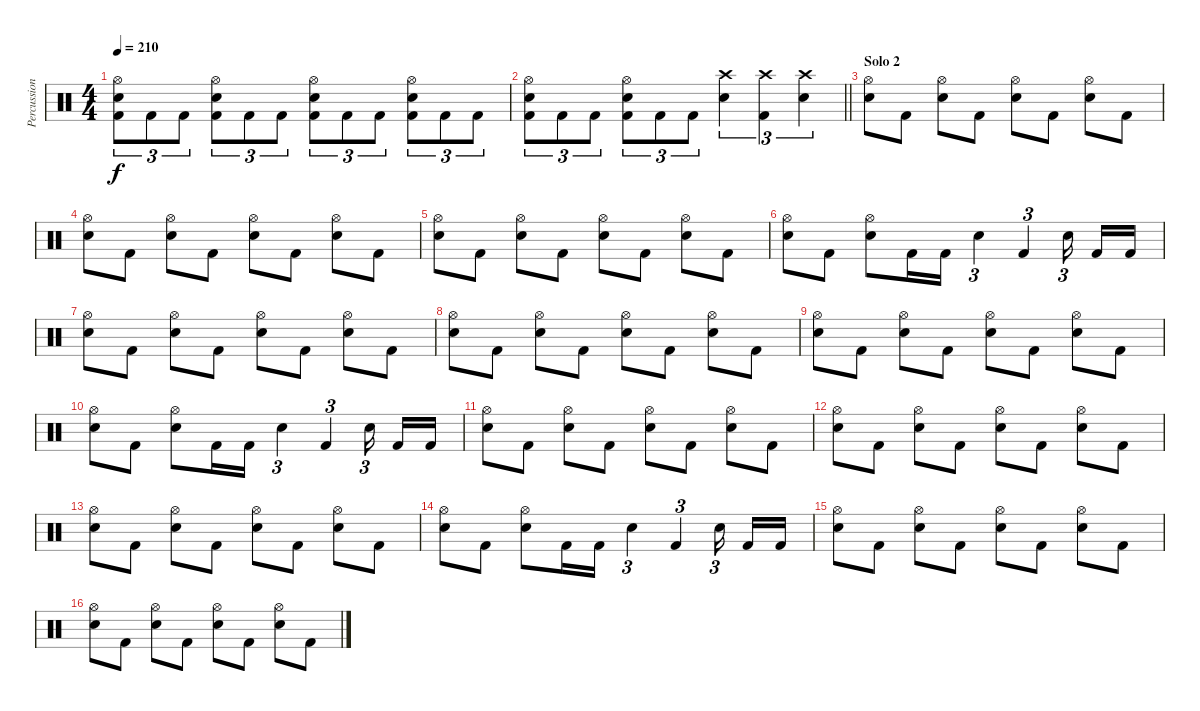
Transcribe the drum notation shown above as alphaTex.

\track ("Percussion" "Percussion") {instrument percussion}
\staff {score}
\articulation defaults
\ts (4 4)
\tempo 210
\clef neutral
\ks c
("Hi-Hat (open)" "Snare (hit) 2" "Kick (hit) 2").8{tu (3 2) dy f} "Kick (hit) 2".8{tu (3 2)} "Kick (hit) 2".8{tu (3 2)} ("Hi-Hat (open)" "Snare (hit) 2" "Kick (hit) 2").8{tu (3 2)} "Kick (hit) 2".8{tu (3 2)} "Kick (hit) 2".8{tu (3 2)} ("Hi-Hat (open)" "Snare (hit) 2" "Kick (hit) 2").8{tu (3 2)} "Kick (hit) 2".8{tu (3 2)} "Kick (hit) 2".8{tu (3 2)} ("Hi-Hat (open)" "Snare (hit) 2" "Kick (hit) 2").8{tu (3 2)} "Kick (hit) 2".8{tu (3 2)} "Kick (hit) 2".8{tu (3 2)} |
\barLineRight lightlight
("Hi-Hat (open)" "Snare (hit) 2" "Kick (hit) 2").8{tu (3 2)} "Kick (hit) 2".8{tu (3 2)} "Kick (hit) 2".8{tu (3 2)} ("Hi-Hat (open)" "Snare (hit) 2" "Kick (hit) 2").8{tu (3 2)} "Kick (hit) 2".8{tu (3 2)} "Kick (hit) 2".8{tu (3 2)} ("Crash high (hit)" "Snare (hit) 2").4{tu (3 2)} ("Crash high (hit)" "Kick (hit) 2").4{tu (3 2)} ("Crash high (hit)" "Snare (hit) 2").4{tu (3 2)} |
\section ("" "Solo 2")
("Hi-Hat (open)" "Snare (hit) 2").8 "Kick (hit) 2".8 ("Hi-Hat (open)" "Snare (hit) 2").8 "Kick (hit) 2".8 ("Hi-Hat (open)" "Snare (hit) 2").8 "Kick (hit) 2".8 ("Hi-Hat (open)" "Snare (hit) 2").8 "Kick (hit) 2".8 |
("Hi-Hat (open)" "Snare (hit) 2").8 "Kick (hit) 2".8 ("Hi-Hat (open)" "Snare (hit) 2").8 "Kick (hit) 2".8 ("Hi-Hat (open)" "Snare (hit) 2").8 "Kick (hit) 2".8 ("Hi-Hat (open)" "Snare (hit) 2").8 "Kick (hit) 2".8 |
("Hi-Hat (open)" "Snare (hit) 2").8 "Kick (hit) 2".8 ("Hi-Hat (open)" "Snare (hit) 2").8 "Kick (hit) 2".8 ("Hi-Hat (open)" "Snare (hit) 2").8 "Kick (hit) 2".8 ("Hi-Hat (open)" "Snare (hit) 2").8 "Kick (hit) 2".8 |
("Hi-Hat (open)" "Snare (hit) 2").8 "Kick (hit) 2".8 ("Hi-Hat (open)" "Snare (hit) 2").8 "Kick (hit) 2".16 "Kick (hit) 2".16 "Snare (hit) 2".4{tu (3 2)} "Kick (hit) 2".4{tu (3 2)} "Snare (hit) 2".16{tu (3 2) beam splitsecondary} "Kick (hit) 2".16 "Kick (hit) 2".16 |
("Hi-Hat (open)" "Snare (hit) 2").8 "Kick (hit) 2".8 ("Hi-Hat (open)" "Snare (hit) 2").8 "Kick (hit) 2".8 ("Hi-Hat (open)" "Snare (hit) 2").8 "Kick (hit) 2".8 ("Hi-Hat (open)" "Snare (hit) 2").8 "Kick (hit) 2".8 |
("Hi-Hat (open)" "Snare (hit) 2").8 "Kick (hit) 2".8 ("Hi-Hat (open)" "Snare (hit) 2").8 "Kick (hit) 2".8 ("Hi-Hat (open)" "Snare (hit) 2").8 "Kick (hit) 2".8 ("Hi-Hat (open)" "Snare (hit) 2").8 "Kick (hit) 2".8 |
("Hi-Hat (open)" "Snare (hit) 2").8 "Kick (hit) 2".8 ("Hi-Hat (open)" "Snare (hit) 2").8 "Kick (hit) 2".8 ("Hi-Hat (open)" "Snare (hit) 2").8 "Kick (hit) 2".8 ("Hi-Hat (open)" "Snare (hit) 2").8 "Kick (hit) 2".8 |
("Hi-Hat (open)" "Snare (hit) 2").8 "Kick (hit) 2".8 ("Hi-Hat (open)" "Snare (hit) 2").8 "Kick (hit) 2".16 "Kick (hit) 2".16 "Snare (hit) 2".4{tu (3 2)} "Kick (hit) 2".4{tu (3 2)} "Snare (hit) 2".16{tu (3 2) beam splitsecondary} "Kick (hit) 2".16 "Kick (hit) 2".16 |
("Hi-Hat (open)" "Snare (hit) 2").8 "Kick (hit) 2".8 ("Hi-Hat (open)" "Snare (hit) 2").8 "Kick (hit) 2".8 ("Hi-Hat (open)" "Snare (hit) 2").8 "Kick (hit) 2".8 ("Hi-Hat (open)" "Snare (hit) 2").8 "Kick (hit) 2".8 |
("Hi-Hat (open)" "Snare (hit) 2").8 "Kick (hit) 2".8 ("Hi-Hat (open)" "Snare (hit) 2").8 "Kick (hit) 2".8 ("Hi-Hat (open)" "Snare (hit) 2").8 "Kick (hit) 2".8 ("Hi-Hat (open)" "Snare (hit) 2").8 "Kick (hit) 2".8 |
("Hi-Hat (open)" "Snare (hit) 2").8 "Kick (hit) 2".8 ("Hi-Hat (open)" "Snare (hit) 2").8 "Kick (hit) 2".8 ("Hi-Hat (open)" "Snare (hit) 2").8 "Kick (hit) 2".8 ("Hi-Hat (open)" "Snare (hit) 2").8 "Kick (hit) 2".8 |
("Hi-Hat (open)" "Snare (hit) 2").8 "Kick (hit) 2".8 ("Hi-Hat (open)" "Snare (hit) 2").8 "Kick (hit) 2".16 "Kick (hit) 2".16 "Snare (hit) 2".4{tu (3 2)} "Kick (hit) 2".4{tu (3 2)} "Snare (hit) 2".16{tu (3 2) beam splitsecondary} "Kick (hit) 2".16 "Kick (hit) 2".16 |
("Hi-Hat (open)" "Snare (hit) 2").8 "Kick (hit) 2".8 ("Hi-Hat (open)" "Snare (hit) 2").8 "Kick (hit) 2".8 ("Hi-Hat (open)" "Snare (hit) 2").8 "Kick (hit) 2".8 ("Hi-Hat (open)" "Snare (hit) 2").8 "Kick (hit) 2".8 |
("Hi-Hat (open)" "Snare (hit) 2").8 "Kick (hit) 2".8 ("Hi-Hat (open)" "Snare (hit) 2").8 "Kick (hit) 2".8 ("Hi-Hat (open)" "Snare (hit) 2").8 "Kick (hit) 2".8 ("Hi-Hat (open)" "Snare (hit) 2").8 "Kick (hit) 2".8
